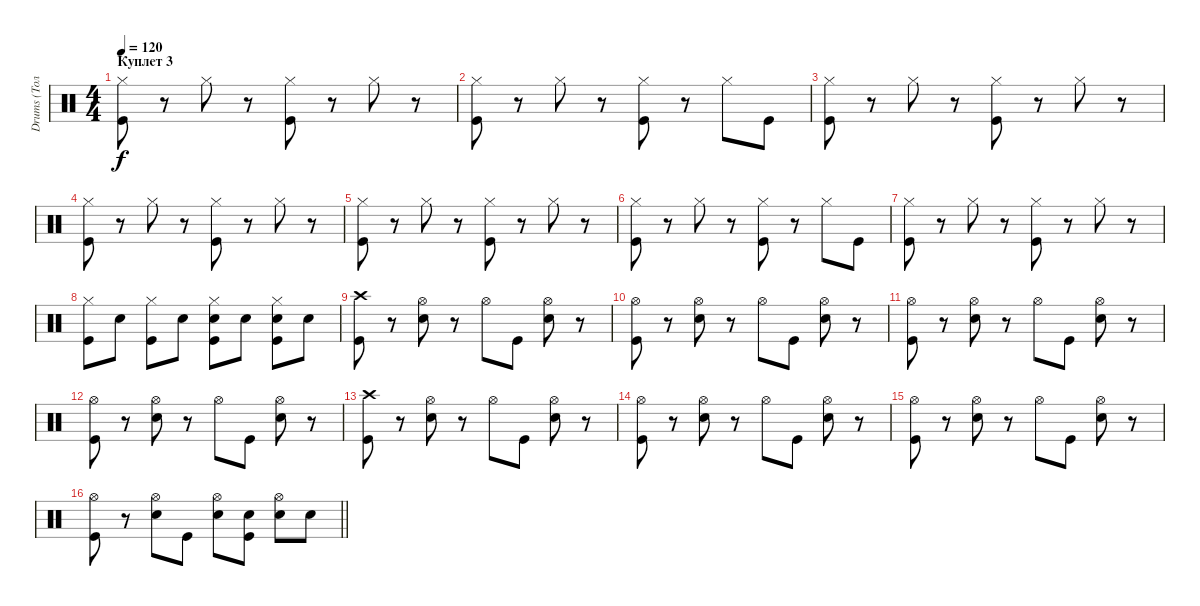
\track ("Drums (Толян)" "Drums (Тол") {instrument percussion}
\staff {score}
\articulation defaults
\ts (4 4)
\section ("" "Куплет 3")
\tempo 120
\clef neutral
\ks c
("Hi-Hat (closed)" "Kick (hit)").8{dy f} r.8 "Hi-Hat (closed)".8 r.8 ("Hi-Hat (closed)" "Kick (hit)").8 r.8 "Hi-Hat (closed)".8 r.8 |
("Hi-Hat (closed)" "Kick (hit)").8 r.8 "Hi-Hat (closed)".8 r.8 ("Hi-Hat (closed)" "Kick (hit)").8 r.8 "Hi-Hat (closed)".8 "Kick (hit)".8 |
("Hi-Hat (closed)" "Kick (hit)").8 r.8 "Hi-Hat (closed)".8 r.8 ("Hi-Hat (closed)" "Kick (hit)").8 r.8 "Hi-Hat (closed)".8 r.8 |
("Hi-Hat (closed)" "Kick (hit)").8 r.8 "Hi-Hat (closed)".8 r.8 ("Hi-Hat (closed)" "Kick (hit)").8 r.8 "Hi-Hat (closed)".8 r.8 |
("Hi-Hat (closed)" "Kick (hit)").8 r.8 "Hi-Hat (closed)".8 r.8 ("Hi-Hat (closed)" "Kick (hit)").8 r.8 "Hi-Hat (closed)".8 r.8 |
("Hi-Hat (closed)" "Kick (hit)").8 r.8 "Hi-Hat (closed)".8 r.8 ("Hi-Hat (closed)" "Kick (hit)").8 r.8 "Hi-Hat (closed)".8 "Kick (hit)".8 |
("Hi-Hat (closed)" "Kick (hit)").8 r.8 "Hi-Hat (closed)".8 r.8 ("Hi-Hat (closed)" "Kick (hit)").8 r.8 "Hi-Hat (closed)".8 r.8 |
("Hi-Hat (closed)" "Kick (hit)").8 "Electric Snare (hit)".8 ("Hi-Hat (closed)" "Kick (hit)").8 "Electric Snare (hit)".8 ("Hi-Hat (closed)" "Electric Snare (hit)" "Kick (hit)").8 "Electric Snare (hit)".8 ("Hi-Hat (closed)" "Electric Snare (hit)" "Kick (hit)").8 "Electric Snare (hit)".8 |
("Crash high (hit)" "Kick (hit)").8 r.8 ("Hi-Hat (open)" "Electric Snare (hit)").8 r.8 "Hi-Hat (open)".8 "Kick (hit)".8 ("Hi-Hat (open)" "Electric Snare (hit)").8 r.8 |
("Hi-Hat (open)" "Kick (hit)").8 r.8 ("Hi-Hat (open)" "Electric Snare (hit)").8 r.8 "Hi-Hat (open)".8 "Kick (hit)".8 ("Hi-Hat (open)" "Electric Snare (hit)").8 r.8 |
("Hi-Hat (open)" "Kick (hit)").8 r.8 ("Hi-Hat (open)" "Electric Snare (hit)").8 r.8 "Hi-Hat (open)".8 "Kick (hit)".8 ("Hi-Hat (open)" "Electric Snare (hit)").8 r.8 |
("Hi-Hat (open)" "Kick (hit)").8 r.8 ("Hi-Hat (open)" "Electric Snare (hit)").8 r.8 "Hi-Hat (open)".8 "Kick (hit)".8 ("Hi-Hat (open)" "Electric Snare (hit)").8 r.8 |
("Crash high (hit)" "Kick (hit)").8 r.8 ("Hi-Hat (open)" "Electric Snare (hit)").8 r.8 "Hi-Hat (open)".8 "Kick (hit)".8 ("Hi-Hat (open)" "Electric Snare (hit)").8 r.8 |
("Hi-Hat (open)" "Kick (hit)").8 r.8 ("Hi-Hat (open)" "Electric Snare (hit)").8 r.8 "Hi-Hat (open)".8 "Kick (hit)".8 ("Hi-Hat (open)" "Electric Snare (hit)").8 r.8 |
("Hi-Hat (open)" "Kick (hit)").8 r.8 ("Hi-Hat (open)" "Electric Snare (hit)").8 r.8 "Hi-Hat (open)".8 "Kick (hit)".8 ("Hi-Hat (open)" "Electric Snare (hit)").8 r.8 |
\barLineRight lightlight
("Hi-Hat (open)" "Kick (hit)").8 r.8 ("Hi-Hat (open)" "Electric Snare (hit)").8 "Kick (hit)".8 ("Hi-Hat (open)" "Electric Snare (hit)").8 ("Electric Snare (hit)" "Kick (hit)").8 ("Hi-Hat (open)" "Electric Snare (hit)").8 "Electric Snare (hit)".8
